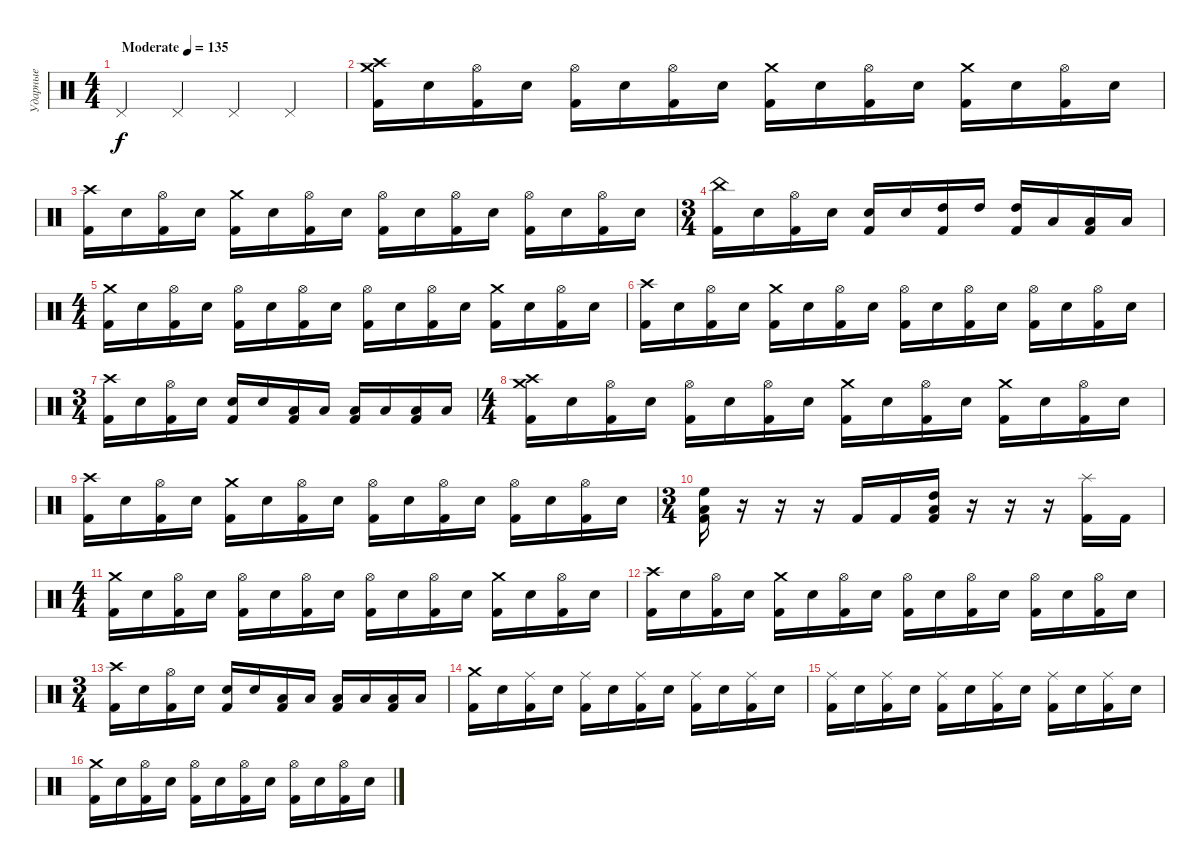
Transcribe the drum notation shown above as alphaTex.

\track ("Ударные" "Ударные") {instrument percussion}
\staff {score}
\articulation defaults
\ts (4 4)
\tempo (135 "Moderate")
\clef neutral
\ks c "Pedal Hi-Hat (hit)".4{dy f} "Pedal Hi-Hat (hit)".4 "Pedal Hi-Hat (hit)".4 "Pedal Hi-Hat (hit)".4
|
("Crash medium (hit)" "Crash high (hit)" "Kick (hit) 2").16 "Electric Snare (hit)".16 ("Hi-Hat (open)" "Kick (hit) 2").16 "Electric Snare (hit)".16 ("Hi-Hat (open)" "Kick (hit) 2").16 "Electric Snare (hit)".16 ("Hi-Hat (open)" "Kick (hit) 2").16 "Electric Snare (hit)".16 ("Crash medium (hit)" "Kick (hit) 2").16 "Electric Snare (hit)".16 ("Hi-Hat (open)" "Kick (hit) 2").16 "Electric Snare (hit)".16 ("Crash medium (hit)" "Kick (hit) 2").16 "Electric Snare (hit)".16 ("Hi-Hat (open)" "Kick (hit) 2").16 "Electric Snare (hit)".16 |
("Crash high (hit)" "Kick (hit) 2").16 "Electric Snare (hit)".16 ("Hi-Hat (open)" "Kick (hit) 2").16 "Electric Snare (hit)".16 ("Crash medium (hit)" "Kick (hit) 2").16 "Electric Snare (hit)".16 ("Hi-Hat (open)" "Kick (hit) 2").16 "Electric Snare (hit)".16 ("Hi-Hat (open)" "Kick (hit) 2").16 "Electric Snare (hit)".16 ("Hi-Hat (open)" "Kick (hit) 2").16 "Electric Snare (hit)".16 ("Hi-Hat (open)" "Kick (hit) 2").16 "Electric Snare (hit)".16 ("Hi-Hat (open)" "Kick (hit) 2").16 "Electric Snare (hit)".16 |
\ts (3 4)
("China (hit)" "Kick (hit) 2").16 "Electric Snare (hit)".16 ("Hi-Hat (open)" "Kick (hit) 2").16 "Electric Snare (hit)".16 ("Electric Snare (hit)" "Kick (hit) 2").16 "Electric Snare (hit)".16 ("High Tom (hit)" "Kick (hit) 2").16 "High Tom (hit)".16 ("High Tom (hit)" "Kick (hit) 2").16 "Low Tom (hit)".16 ("Low Tom (hit)" "Kick (hit) 2").16 "Low Tom (hit)".16 |
\ts (4 4)
("Crash medium (hit)" "Kick (hit) 2").16 "Electric Snare (hit)".16 ("Hi-Hat (open)" "Kick (hit) 2").16 "Electric Snare (hit)".16 ("Hi-Hat (open)" "Kick (hit) 2").16 "Electric Snare (hit)".16 ("Hi-Hat (open)" "Kick (hit) 2").16 "Electric Snare (hit)".16 ("Hi-Hat (open)" "Kick (hit) 2").16 "Electric Snare (hit)".16 ("Hi-Hat (open)" "Kick (hit) 2").16 "Electric Snare (hit)".16 ("Crash medium (hit)" "Kick (hit) 2").16 "Electric Snare (hit)".16 ("Hi-Hat (open)" "Kick (hit) 2").16 "Electric Snare (hit)".16 |
("Crash high (hit)" "Kick (hit) 2").16 "Electric Snare (hit)".16 ("Hi-Hat (open)" "Kick (hit) 2").16 "Electric Snare (hit)".16 ("Crash medium (hit)" "Kick (hit) 2").16 "Electric Snare (hit)".16 ("Hi-Hat (open)" "Kick (hit) 2").16 "Electric Snare (hit)".16 ("Hi-Hat (open)" "Kick (hit) 2").16 "Electric Snare (hit)".16 ("Hi-Hat (open)" "Kick (hit) 2").16 "Electric Snare (hit)".16 ("Hi-Hat (open)" "Kick (hit) 2").16 "Electric Snare (hit)".16 ("Hi-Hat (open)" "Kick (hit) 2").16 "Electric Snare (hit)".16 |
\ts (3 4)
("Crash high (hit)" "Kick (hit) 2").16 "Electric Snare (hit)".16 ("Hi-Hat (open)" "Kick (hit) 2").16 "Electric Snare (hit)".16 ("Electric Snare (hit)" "Kick (hit) 2").16 "Electric Snare (hit)".16 ("Low Tom (hit)" "Kick (hit) 2").16 "Low Tom (hit)".16 ("Low Tom (hit)" "Kick (hit) 2").16 "Low Floor Tom (hit)".16 ("Low Floor Tom (hit)" "Kick (hit) 2").16 "Low Floor Tom (hit)".16 |
\ts (4 4)
("Crash medium (hit)" "Crash high (hit)" "Kick (hit) 2").16 "Electric Snare (hit)".16 ("Hi-Hat (open)" "Kick (hit) 2").16 "Electric Snare (hit)".16 ("Hi-Hat (open)" "Kick (hit) 2").16 "Electric Snare (hit)".16 ("Hi-Hat (open)" "Kick (hit) 2").16 "Electric Snare (hit)".16 ("Crash medium (hit)" "Kick (hit) 2").16 "Electric Snare (hit)".16 ("Hi-Hat (open)" "Kick (hit) 2").16 "Electric Snare (hit)".16 ("Crash medium (hit)" "Kick (hit) 2").16 "Electric Snare (hit)".16 ("Hi-Hat (open)" "Kick (hit) 2").16 "Electric Snare (hit)".16 |
("Crash high (hit)" "Kick (hit) 2").16 "Electric Snare (hit)".16 ("Hi-Hat (open)" "Kick (hit) 2").16 "Electric Snare (hit)".16 ("Crash medium (hit)" "Kick (hit) 2").16 "Electric Snare (hit)".16 ("Hi-Hat (open)" "Kick (hit) 2").16 "Electric Snare (hit)".16 ("Hi-Hat (open)" "Kick (hit) 2").16 "Electric Snare (hit)".16 ("Hi-Hat (open)" "Kick (hit) 2").16 "Electric Snare (hit)".16 ("Hi-Hat (open)" "Kick (hit) 2").16 "Electric Snare (hit)".16 ("Hi-Hat (open)" "Kick (hit) 2").16 "Electric Snare (hit)".16 |
\ts (3 4)
("Low Tom (hit)" "High Floor Tom (hit)" "Kick (hit) 2").16 r.16 r.16 r.16 "Kick (hit) 2".16 "Kick (hit) 2".16 ("High Tom (hit)" "Low Tom (hit)" "Kick (hit) 2").16 r.16 r.16 r.16 ("Splash (hit)" "Kick (hit) 2").16 "Kick (hit) 2".16 |
\ts (4 4)
("Crash medium (hit)" "Kick (hit) 2").16 "Electric Snare (hit)".16 ("Hi-Hat (open)" "Kick (hit) 2").16 "Electric Snare (hit)".16 ("Hi-Hat (open)" "Kick (hit) 2").16 "Electric Snare (hit)".16 ("Hi-Hat (open)" "Kick (hit) 2").16 "Electric Snare (hit)".16 ("Hi-Hat (open)" "Kick (hit) 2").16 "Electric Snare (hit)".16 ("Hi-Hat (open)" "Kick (hit) 2").16 "Electric Snare (hit)".16 ("Crash medium (hit)" "Kick (hit) 2").16 "Electric Snare (hit)".16 ("Hi-Hat (open)" "Kick (hit) 2").16 "Electric Snare (hit)".16 |
("Crash high (hit)" "Kick (hit) 2").16 "Electric Snare (hit)".16 ("Hi-Hat (open)" "Kick (hit) 2").16 "Electric Snare (hit)".16 ("Crash medium (hit)" "Kick (hit) 2").16 "Electric Snare (hit)".16 ("Hi-Hat (open)" "Kick (hit) 2").16 "Electric Snare (hit)".16 ("Hi-Hat (open)" "Kick (hit) 2").16 "Electric Snare (hit)".16 ("Hi-Hat (open)" "Kick (hit) 2").16 "Electric Snare (hit)".16 ("Hi-Hat (open)" "Kick (hit) 2").16 "Electric Snare (hit)".16 ("Hi-Hat (open)" "Kick (hit) 2").16 "Electric Snare (hit)".16 |
\ts (3 4)
("Crash high (hit)" "Kick (hit) 2").16 "Electric Snare (hit)".16 ("Hi-Hat (open)" "Kick (hit) 2").16 "Electric Snare (hit)".16 ("Electric Snare (hit)" "Kick (hit) 2").16 "Electric Snare (hit)".16 ("Low Tom (hit)" "Kick (hit) 2").16 "Low Tom (hit)".16 ("Low Tom (hit)" "Kick (hit) 2").16 "Low Floor Tom (hit)".16 ("Low Floor Tom (hit)" "Kick (hit) 2").16 "Low Floor Tom (hit)".16 |
("Crash medium (hit)" "Kick (hit) 2").16 "Electric Snare (hit)".16 ("Ride (middle)" "Kick (hit) 2").16 "Electric Snare (hit)".16 ("Ride (middle)" "Kick (hit) 2").16 "Electric Snare (hit)".16 ("Ride (middle)" "Kick (hit) 2").16 "Electric Snare (hit)".16 ("Ride (middle)" "Kick (hit) 2").16 "Electric Snare (hit)".16 ("Ride (middle)" "Kick (hit) 2").16 "Electric Snare (hit)".16 |
("Ride (middle)" "Kick (hit) 2").16 "Electric Snare (hit)".16 ("Ride (middle)" "Kick (hit) 2").16 "Electric Snare (hit)".16 ("Ride (middle)" "Kick (hit) 2").16 "Electric Snare (hit)".16 ("Ride (middle)" "Kick (hit) 2").16 "Electric Snare (hit)".16 ("Ride (middle)" "Kick (hit) 2").16 "Electric Snare (hit)".16 ("Ride (middle)" "Kick (hit) 2").16 "Electric Snare (hit)".16 |
("Crash medium (hit)" "Kick (hit) 2").16 "Electric Snare (hit)".16 ("Hi-Hat (open)" "Kick (hit) 2").16 "Electric Snare (hit)".16 ("Hi-Hat (open)" "Kick (hit) 2").16 "Electric Snare (hit)".16 ("Hi-Hat (open)" "Kick (hit) 2").16 "Electric Snare (hit)".16 ("Hi-Hat (open)" "Kick (hit) 2").16 "Electric Snare (hit)".16 ("Hi-Hat (open)" "Kick (hit) 2").16 "Electric Snare (hit)".16
